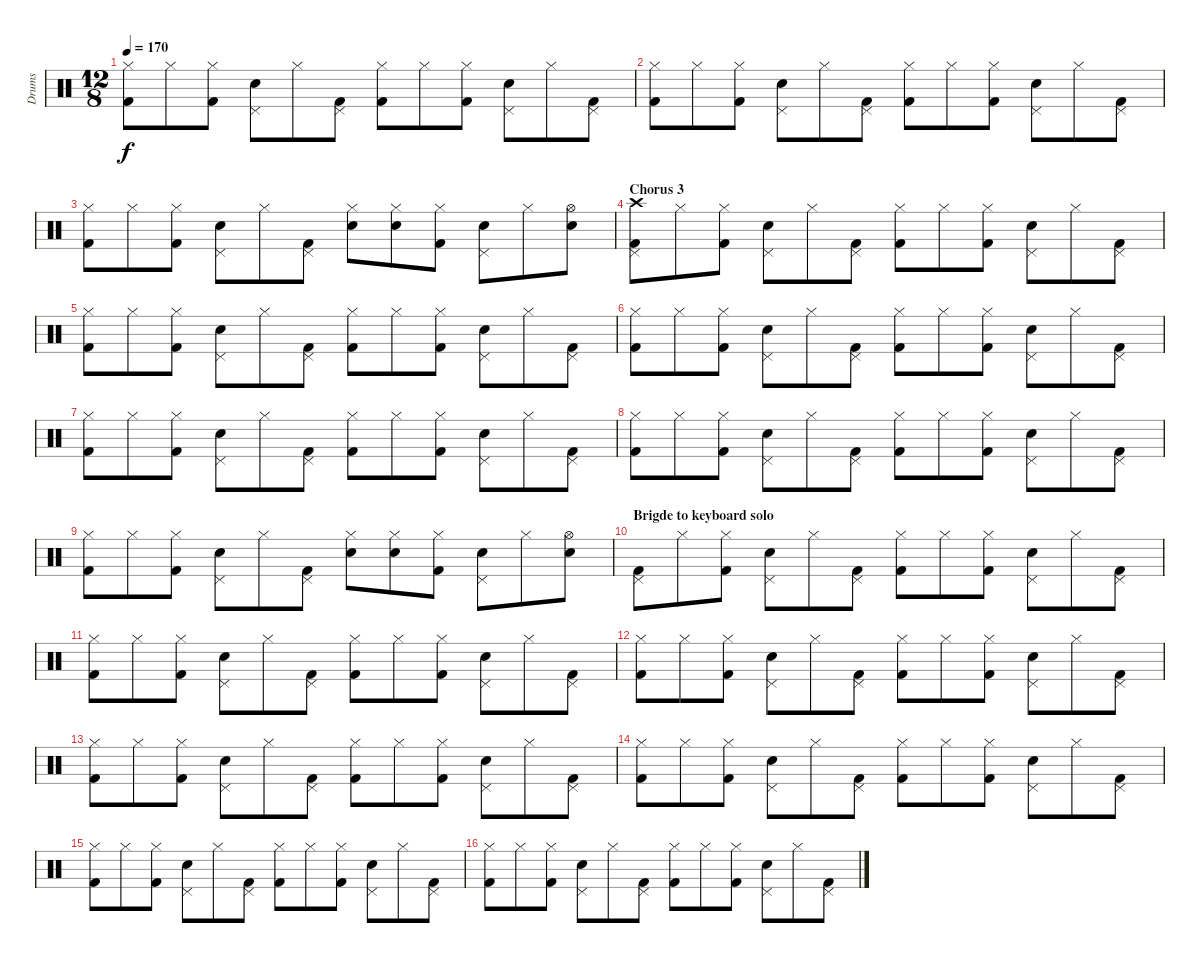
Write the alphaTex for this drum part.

\track ("Drums" "Drums") {instrument percussion}
\staff {score}
\articulation defaults
\ts (12 8)
\tempo 170
\clef neutral
\ks c
("Kick (hit) 2" "Hi-Hat (closed)").8{dy f} "Hi-Hat (closed)".8 ("Kick (hit) 2" "Hi-Hat (closed)").8 ("Snare (hit) 2" "Pedal Hi-Hat (hit)").8 "Hi-Hat (closed)".8 ("Kick (hit) 2" "Pedal Hi-Hat (hit)").8 ("Kick (hit) 2" "Hi-Hat (closed)").8 "Hi-Hat (closed)".8 ("Kick (hit) 2" "Hi-Hat (closed)").8 ("Snare (hit) 2" "Pedal Hi-Hat (hit)").8 "Hi-Hat (closed)".8 ("Kick (hit) 2" "Pedal Hi-Hat (hit)").8 |
("Kick (hit) 2" "Hi-Hat (closed)").8 "Hi-Hat (closed)".8 ("Kick (hit) 2" "Hi-Hat (closed)").8 ("Snare (hit) 2" "Pedal Hi-Hat (hit)").8 "Hi-Hat (closed)".8 ("Kick (hit) 2" "Pedal Hi-Hat (hit)").8 ("Kick (hit) 2" "Hi-Hat (closed)").8 "Hi-Hat (closed)".8 ("Kick (hit) 2" "Hi-Hat (closed)").8 ("Snare (hit) 2" "Pedal Hi-Hat (hit)").8 "Hi-Hat (closed)".8 ("Kick (hit) 2" "Pedal Hi-Hat (hit)").8 |
("Kick (hit) 2" "Hi-Hat (closed)").8 "Hi-Hat (closed)".8 ("Kick (hit) 2" "Hi-Hat (closed)").8 ("Snare (hit) 2" "Pedal Hi-Hat (hit)").8 "Hi-Hat (closed)".8 ("Kick (hit) 2" "Pedal Hi-Hat (hit)").8 ("Snare (hit) 2" "Hi-Hat (closed)").8 ("Snare (hit) 2" "Hi-Hat (closed)").8 ("Kick (hit) 2" "Hi-Hat (closed)").8 ("Snare (hit) 2" "Pedal Hi-Hat (hit)").8 "Hi-Hat (closed)".8 ("Snare (hit) 2" "Hi-Hat (open)").8 |
\section ("" "Chorus 3")
("Kick (hit) 2" "Crash high (hit)" "Pedal Hi-Hat (hit)").8 "Hi-Hat (closed)".8 ("Kick (hit) 2" "Hi-Hat (closed)").8 ("Snare (hit) 2" "Pedal Hi-Hat (hit)").8 "Hi-Hat (closed)".8 ("Kick (hit) 2" "Pedal Hi-Hat (hit)").8 ("Kick (hit) 2" "Hi-Hat (closed)").8 "Hi-Hat (closed)".8 ("Kick (hit) 2" "Hi-Hat (closed)").8 ("Snare (hit) 2" "Pedal Hi-Hat (hit)").8 "Hi-Hat (closed)".8 ("Kick (hit) 2" "Pedal Hi-Hat (hit)").8 |
("Kick (hit) 2" "Hi-Hat (closed)").8 "Hi-Hat (closed)".8 ("Kick (hit) 2" "Hi-Hat (closed)").8 ("Snare (hit) 2" "Pedal Hi-Hat (hit)").8 "Hi-Hat (closed)".8 ("Kick (hit) 2" "Pedal Hi-Hat (hit)").8 ("Kick (hit) 2" "Hi-Hat (closed)").8 "Hi-Hat (closed)".8 ("Kick (hit) 2" "Hi-Hat (closed)").8 ("Snare (hit) 2" "Pedal Hi-Hat (hit)").8 "Hi-Hat (closed)".8 ("Kick (hit) 2" "Pedal Hi-Hat (hit)").8 |
("Kick (hit) 2" "Hi-Hat (closed)").8 "Hi-Hat (closed)".8 ("Kick (hit) 2" "Hi-Hat (closed)").8 ("Snare (hit) 2" "Pedal Hi-Hat (hit)").8 "Hi-Hat (closed)".8 ("Kick (hit) 2" "Pedal Hi-Hat (hit)").8 ("Kick (hit) 2" "Hi-Hat (closed)").8 "Hi-Hat (closed)".8 ("Kick (hit) 2" "Hi-Hat (closed)").8 ("Snare (hit) 2" "Pedal Hi-Hat (hit)").8 "Hi-Hat (closed)".8 ("Kick (hit) 2" "Pedal Hi-Hat (hit)").8 |
("Kick (hit) 2" "Hi-Hat (closed)").8 "Hi-Hat (closed)".8 ("Kick (hit) 2" "Hi-Hat (closed)").8 ("Snare (hit) 2" "Pedal Hi-Hat (hit)").8 "Hi-Hat (closed)".8 ("Kick (hit) 2" "Pedal Hi-Hat (hit)").8 ("Kick (hit) 2" "Hi-Hat (closed)").8 "Hi-Hat (closed)".8 ("Kick (hit) 2" "Hi-Hat (closed)").8 ("Snare (hit) 2" "Pedal Hi-Hat (hit)").8 "Hi-Hat (closed)".8 ("Kick (hit) 2" "Pedal Hi-Hat (hit)").8 |
("Kick (hit) 2" "Hi-Hat (closed)").8 "Hi-Hat (closed)".8 ("Kick (hit) 2" "Hi-Hat (closed)").8 ("Snare (hit) 2" "Pedal Hi-Hat (hit)").8 "Hi-Hat (closed)".8 ("Kick (hit) 2" "Pedal Hi-Hat (hit)").8 ("Kick (hit) 2" "Hi-Hat (closed)").8 "Hi-Hat (closed)".8 ("Kick (hit) 2" "Hi-Hat (closed)").8 ("Snare (hit) 2" "Pedal Hi-Hat (hit)").8 "Hi-Hat (closed)".8 ("Kick (hit) 2" "Pedal Hi-Hat (hit)").8 |
("Kick (hit) 2" "Hi-Hat (closed)").8 "Hi-Hat (closed)".8 ("Kick (hit) 2" "Hi-Hat (closed)").8 ("Snare (hit) 2" "Pedal Hi-Hat (hit)").8 "Hi-Hat (closed)".8 ("Kick (hit) 2" "Pedal Hi-Hat (hit)").8 ("Snare (hit) 2" "Hi-Hat (closed)").8 ("Snare (hit) 2" "Hi-Hat (closed)").8 ("Kick (hit) 2" "Hi-Hat (closed)").8 ("Snare (hit) 2" "Pedal Hi-Hat (hit)").8 "Hi-Hat (closed)".8 ("Snare (hit) 2" "Hi-Hat (open)").8 |
\section ("" "Brigde to keyboard solo")
("Kick (hit) 2" "Pedal Hi-Hat (hit)").8 "Hi-Hat (closed)".8 ("Kick (hit) 2" "Hi-Hat (closed)").8 ("Snare (hit) 2" "Pedal Hi-Hat (hit)").8 "Hi-Hat (closed)".8 ("Kick (hit) 2" "Pedal Hi-Hat (hit)").8 ("Kick (hit) 2" "Hi-Hat (closed)").8 "Hi-Hat (closed)".8 ("Kick (hit) 2" "Hi-Hat (closed)").8 ("Snare (hit) 2" "Pedal Hi-Hat (hit)").8 "Hi-Hat (closed)".8 ("Kick (hit) 2" "Pedal Hi-Hat (hit)").8 |
("Kick (hit) 2" "Hi-Hat (closed)").8 "Hi-Hat (closed)".8 ("Kick (hit) 2" "Hi-Hat (closed)").8 ("Snare (hit) 2" "Pedal Hi-Hat (hit)").8 "Hi-Hat (closed)".8 ("Kick (hit) 2" "Pedal Hi-Hat (hit)").8 ("Kick (hit) 2" "Hi-Hat (closed)").8 "Hi-Hat (closed)".8 ("Kick (hit) 2" "Hi-Hat (closed)").8 ("Snare (hit) 2" "Pedal Hi-Hat (hit)").8 "Hi-Hat (closed)".8 ("Kick (hit) 2" "Pedal Hi-Hat (hit)").8 |
("Kick (hit) 2" "Hi-Hat (closed)").8 "Hi-Hat (closed)".8 ("Kick (hit) 2" "Hi-Hat (closed)").8 ("Snare (hit) 2" "Pedal Hi-Hat (hit)").8 "Hi-Hat (closed)".8 ("Kick (hit) 2" "Pedal Hi-Hat (hit)").8 ("Kick (hit) 2" "Hi-Hat (closed)").8 "Hi-Hat (closed)".8 ("Kick (hit) 2" "Hi-Hat (closed)").8 ("Snare (hit) 2" "Pedal Hi-Hat (hit)").8 "Hi-Hat (closed)".8 ("Kick (hit) 2" "Pedal Hi-Hat (hit)").8 |
("Kick (hit) 2" "Hi-Hat (closed)").8 "Hi-Hat (closed)".8 ("Kick (hit) 2" "Hi-Hat (closed)").8 ("Snare (hit) 2" "Pedal Hi-Hat (hit)").8 "Hi-Hat (closed)".8 ("Kick (hit) 2" "Pedal Hi-Hat (hit)").8 ("Kick (hit) 2" "Hi-Hat (closed)").8 "Hi-Hat (closed)".8 ("Kick (hit) 2" "Hi-Hat (closed)").8 ("Snare (hit) 2" "Pedal Hi-Hat (hit)").8 "Hi-Hat (closed)".8 ("Kick (hit) 2" "Pedal Hi-Hat (hit)").8 |
("Kick (hit) 2" "Hi-Hat (closed)").8 "Hi-Hat (closed)".8 ("Kick (hit) 2" "Hi-Hat (closed)").8 ("Snare (hit) 2" "Pedal Hi-Hat (hit)").8 "Hi-Hat (closed)".8 ("Kick (hit) 2" "Pedal Hi-Hat (hit)").8 ("Kick (hit) 2" "Hi-Hat (closed)").8 "Hi-Hat (closed)".8 ("Kick (hit) 2" "Hi-Hat (closed)").8 ("Snare (hit) 2" "Pedal Hi-Hat (hit)").8 "Hi-Hat (closed)".8 ("Kick (hit) 2" "Pedal Hi-Hat (hit)").8 |
("Kick (hit) 2" "Hi-Hat (closed)").8 "Hi-Hat (closed)".8 ("Kick (hit) 2" "Hi-Hat (closed)").8 ("Snare (hit) 2" "Pedal Hi-Hat (hit)").8 "Hi-Hat (closed)".8 ("Kick (hit) 2" "Pedal Hi-Hat (hit)").8 ("Kick (hit) 2" "Hi-Hat (closed)").8 "Hi-Hat (closed)".8 ("Kick (hit) 2" "Hi-Hat (closed)").8 ("Snare (hit) 2" "Pedal Hi-Hat (hit)").8 "Hi-Hat (closed)".8 ("Kick (hit) 2" "Pedal Hi-Hat (hit)").8 |
("Kick (hit) 2" "Hi-Hat (closed)").8 "Hi-Hat (closed)".8 ("Kick (hit) 2" "Hi-Hat (closed)").8 ("Snare (hit) 2" "Pedal Hi-Hat (hit)").8 "Hi-Hat (closed)".8 ("Kick (hit) 2" "Pedal Hi-Hat (hit)").8 ("Kick (hit) 2" "Hi-Hat (closed)").8 "Hi-Hat (closed)".8 ("Kick (hit) 2" "Hi-Hat (closed)").8 ("Snare (hit) 2" "Pedal Hi-Hat (hit)").8 "Hi-Hat (closed)".8 ("Kick (hit) 2" "Pedal Hi-Hat (hit)").8
